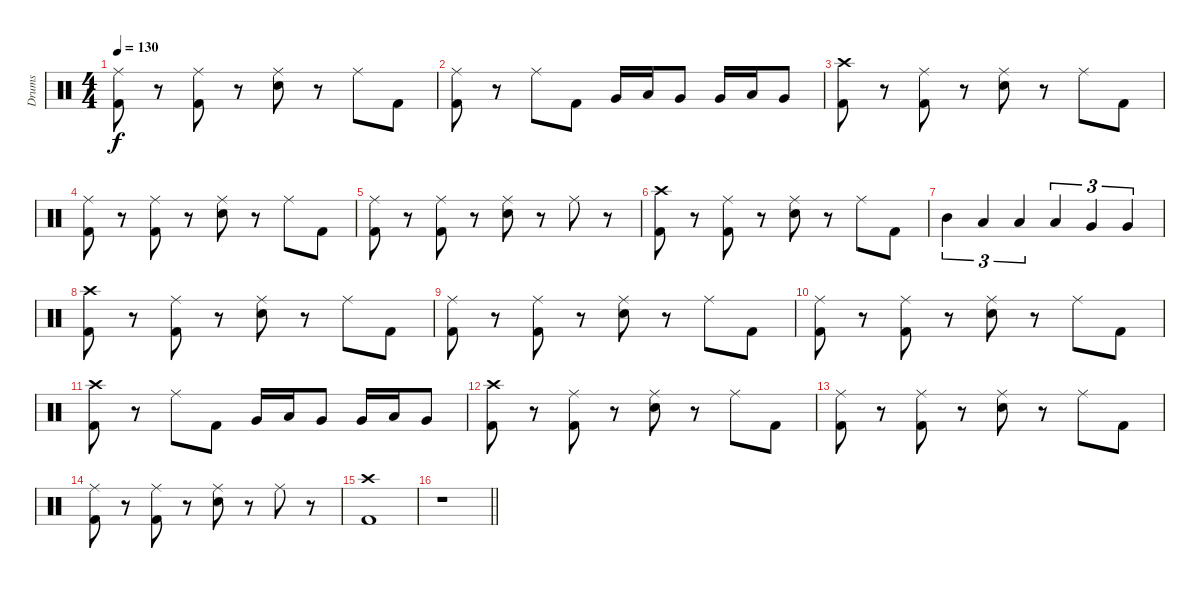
\track ("Drums" "Drums") {instrument percussion}
\staff {score}
\articulation defaults
\ts (4 4)
\tempo 130
\clef neutral
\ks c
("Ride (middle)" "Kick (hit) 2").8{dy f} r.8 ("Ride (middle)" "Kick (hit) 2").8 r.8 ("Ride (middle)" "Snare (hit) 2").8 r.8 "Ride (middle)".8 "Kick (hit) 2".8 |
("Ride (middle)" "Kick (hit) 2").8 r.8 "Ride (middle)".8 "Kick (hit) 2".8 "Very Low Tom (hit)".16 "Low Floor Tom (hit)".16 "Very Low Tom (hit)".8 "Very Low Tom (hit)".16 "Low Floor Tom (hit)".16 "Very Low Tom (hit)".8 |
("Crash high (hit)" "Kick (hit) 2").8 r.8 ("Ride (middle)" "Kick (hit) 2").8 r.8 ("Ride (middle)" "Snare (hit) 2").8 r.8 "Ride (middle)".8 "Kick (hit) 2".8 |
("Ride (middle)" "Kick (hit) 2").8 r.8 ("Ride (middle)" "Kick (hit) 2").8 r.8 ("Ride (middle)" "Snare (hit) 2").8 r.8 "Ride (middle)".8 "Kick (hit) 2".8 |
("Ride (middle)" "Kick (hit) 2").8 r.8 ("Ride (middle)" "Kick (hit) 2").8 r.8 ("Ride (middle)" "Snare (hit) 2").8 r.8 "Ride (middle)".8 r.8 |
("Crash high (hit)" "Kick (hit) 2").8 r.8 ("Ride (middle)" "Kick (hit) 2").8 r.8 ("Ride (middle)" "Snare (hit) 2").8 r.8 "Ride (middle)".8 "Kick (hit) 2".8 |
"Mid Tom (hit)".4{tu (3 2)} "Low Tom (hit)".4{tu (3 2)} "Low Tom (hit)".4{tu (3 2)} "Low Tom (hit)".4{tu (3 2)} "Very Low Tom (hit)".4{tu (3 2)} "Very Low Tom (hit)".4{tu (3 2)} |
("Crash high (hit)" "Kick (hit) 2").8 r.8 ("Ride (middle)" "Kick (hit) 2").8 r.8 ("Ride (middle)" "Snare (hit) 2").8 r.8 "Ride (middle)".8 "Kick (hit) 2".8 |
("Ride (middle)" "Kick (hit) 2").8 r.8 ("Ride (middle)" "Kick (hit) 2").8 r.8 ("Ride (middle)" "Snare (hit) 2").8 r.8 "Ride (middle)".8 "Kick (hit) 2".8 |
("Ride (middle)" "Kick (hit) 2").8 r.8 ("Ride (middle)" "Kick (hit) 2").8 r.8 ("Ride (middle)" "Snare (hit) 2").8 r.8 "Ride (middle)".8 "Kick (hit) 2".8 |
("Crash high (hit)" "Kick (hit) 2").8 r.8 "Ride (middle)".8 "Kick (hit) 2".8 "Very Low Tom (hit)".16 "Low Floor Tom (hit)".16 "Very Low Tom (hit)".8 "Very Low Tom (hit)".16 "Low Floor Tom (hit)".16 "Very Low Tom (hit)".8 |
("Crash high (hit)" "Kick (hit) 2").8 r.8 ("Ride (middle)" "Kick (hit) 2").8 r.8 ("Ride (middle)" "Snare (hit) 2").8 r.8 "Ride (middle)".8 "Kick (hit) 2".8 |
("Ride (middle)" "Kick (hit) 2").8 r.8 ("Ride (middle)" "Kick (hit) 2").8 r.8 ("Ride (middle)" "Snare (hit) 2").8 r.8 "Ride (middle)".8 "Kick (hit) 2".8 |
("Ride (middle)" "Kick (hit) 2").8 r.8 ("Ride (middle)" "Kick (hit) 2").8 r.8 ("Ride (middle)" "Snare (hit) 2").8 r.8 "Ride (middle)".8 r.8 |
("Crash high (hit)" "Kick (hit) 2").1 |
\barLineRight lightlight
r.1
